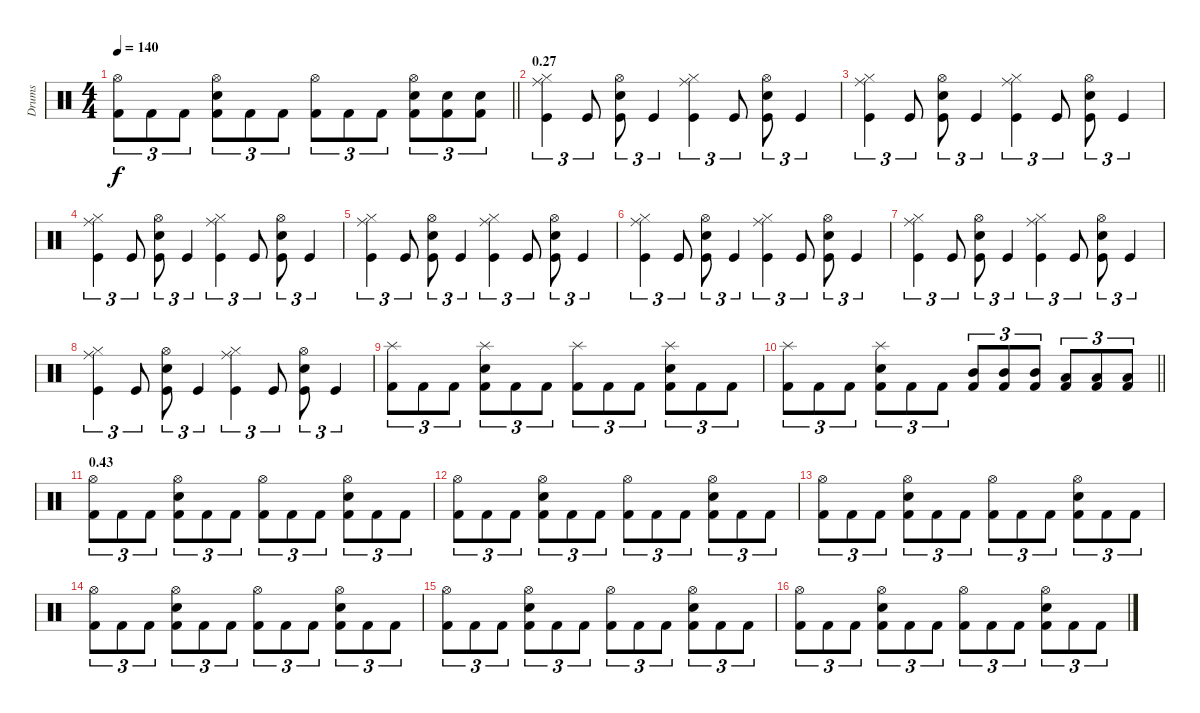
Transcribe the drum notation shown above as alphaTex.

\track ("Drums" "Drums") {instrument percussion}
\staff {score}
\articulation defaults
\ts (4 4)
\tempo 140
\clef neutral
\barLineRight lightlight
\ks c
("Hi-Hat (open)" "Kick (hit) 2").8{tu (3 2) dy f} "Kick (hit) 2".8{tu (3 2)} "Kick (hit) 2".8{tu (3 2)} ("Hi-Hat (open)" "Electric Snare (hit)" "Kick (hit) 2").8{tu (3 2)} "Kick (hit) 2".8{tu (3 2)} "Kick (hit) 2".8{tu (3 2)} ("Hi-Hat (open)" "Kick (hit) 2").8{tu (3 2)} "Kick (hit) 2".8{tu (3 2)} "Kick (hit) 2".8{tu (3 2)} ("Hi-Hat (open)" "Electric Snare (hit)" "Kick (hit) 2").8{tu (3 2)} ("Electric Snare (hit)" "Kick (hit) 2").8{tu (3 2)} ("Electric Snare (hit)" "Kick (hit) 2").8{tu (3 2)} |
\section ("" "0.27")
("Hi-Hat (closed)" "Ride (middle)" "Kick (hit)").4{tu (3 2)} "Kick (hit)".8{tu (3 2)} ("Hi-Hat (open)" "Electric Snare (hit)" "Kick (hit)").8{tu (3 2)} "Kick (hit)".4{tu (3 2)} ("Hi-Hat (closed)" "Ride (middle)" "Kick (hit)").4{tu (3 2)} "Kick (hit)".8{tu (3 2)} ("Hi-Hat (open)" "Electric Snare (hit)" "Kick (hit)").8{tu (3 2)} "Kick (hit)".4{tu (3 2)} |
("Hi-Hat (closed)" "Ride (middle)" "Kick (hit)").4{tu (3 2)} "Kick (hit)".8{tu (3 2)} ("Hi-Hat (open)" "Electric Snare (hit)" "Kick (hit)").8{tu (3 2)} "Kick (hit)".4{tu (3 2)} ("Hi-Hat (closed)" "Ride (middle)" "Kick (hit)").4{tu (3 2)} "Kick (hit)".8{tu (3 2)} ("Hi-Hat (open)" "Electric Snare (hit)" "Kick (hit)").8{tu (3 2)} "Kick (hit)".4{tu (3 2)} |
("Hi-Hat (closed)" "Ride (middle)" "Kick (hit)").4{tu (3 2)} "Kick (hit)".8{tu (3 2)} ("Hi-Hat (open)" "Electric Snare (hit)" "Kick (hit)").8{tu (3 2)} "Kick (hit)".4{tu (3 2)} ("Hi-Hat (closed)" "Ride (middle)" "Kick (hit)").4{tu (3 2)} "Kick (hit)".8{tu (3 2)} ("Hi-Hat (open)" "Electric Snare (hit)" "Kick (hit)").8{tu (3 2)} "Kick (hit)".4{tu (3 2)} |
("Hi-Hat (closed)" "Ride (middle)" "Kick (hit)").4{tu (3 2)} "Kick (hit)".8{tu (3 2)} ("Hi-Hat (open)" "Electric Snare (hit)" "Kick (hit)").8{tu (3 2)} "Kick (hit)".4{tu (3 2)} ("Hi-Hat (closed)" "Ride (middle)" "Kick (hit)").4{tu (3 2)} "Kick (hit)".8{tu (3 2)} ("Hi-Hat (open)" "Electric Snare (hit)" "Kick (hit)").8{tu (3 2)} "Kick (hit)".4{tu (3 2)} |
("Hi-Hat (closed)" "Ride (middle)" "Kick (hit)").4{tu (3 2)} "Kick (hit)".8{tu (3 2)} ("Hi-Hat (open)" "Electric Snare (hit)" "Kick (hit)").8{tu (3 2)} "Kick (hit)".4{tu (3 2)} ("Hi-Hat (closed)" "Ride (middle)" "Kick (hit)").4{tu (3 2)} "Kick (hit)".8{tu (3 2)} ("Hi-Hat (open)" "Electric Snare (hit)" "Kick (hit)").8{tu (3 2)} "Kick (hit)".4{tu (3 2)} |
("Hi-Hat (closed)" "Ride (middle)" "Kick (hit)").4{tu (3 2)} "Kick (hit)".8{tu (3 2)} ("Hi-Hat (open)" "Electric Snare (hit)" "Kick (hit)").8{tu (3 2)} "Kick (hit)".4{tu (3 2)} ("Hi-Hat (closed)" "Ride (middle)" "Kick (hit)").4{tu (3 2)} "Kick (hit)".8{tu (3 2)} ("Hi-Hat (open)" "Electric Snare (hit)" "Kick (hit)").8{tu (3 2)} "Kick (hit)".4{tu (3 2)} |
("Hi-Hat (closed)" "Ride (middle)" "Kick (hit)").4{tu (3 2)} "Kick (hit)".8{tu (3 2)} ("Hi-Hat (open)" "Electric Snare (hit)" "Kick (hit)").8{tu (3 2)} "Kick (hit)".4{tu (3 2)} ("Hi-Hat (closed)" "Ride (middle)" "Kick (hit)").4{tu (3 2)} "Kick (hit)".8{tu (3 2)} ("Hi-Hat (open)" "Electric Snare (hit)" "Kick (hit)").8{tu (3 2)} "Kick (hit)".4{tu (3 2)} |
("Splash (hit)" "Kick (hit) 2").8{tu (3 2)} "Kick (hit) 2".8{tu (3 2)} "Kick (hit) 2".8{tu (3 2)} ("Splash (hit)" "Electric Snare (hit)" "Kick (hit) 2").8{tu (3 2)} "Kick (hit) 2".8{tu (3 2)} "Kick (hit) 2".8{tu (3 2)} ("Splash (hit)" "Kick (hit) 2").8{tu (3 2)} "Kick (hit) 2".8{tu (3 2)} "Kick (hit) 2".8{tu (3 2)} ("Splash (hit)" "Electric Snare (hit)" "Kick (hit) 2").8{tu (3 2)} "Kick (hit) 2".8{tu (3 2)} "Kick (hit) 2".8{tu (3 2)} |
\barLineRight lightlight
("Splash (hit)" "Kick (hit) 2").8{tu (3 2)} "Kick (hit) 2".8{tu (3 2)} "Kick (hit) 2".8{tu (3 2)} ("Splash (hit)" "Electric Snare (hit)" "Kick (hit) 2").8{tu (3 2)} "Kick (hit) 2".8{tu (3 2)} "Kick (hit) 2".8{tu (3 2)} ("Mid Tom (hit)" "Kick (hit) 2").8{tu (3 2)} ("Mid Tom (hit)" "Kick (hit) 2").8{tu (3 2)} ("Mid Tom (hit)" "Kick (hit) 2").8{tu (3 2)} ("Low Tom (hit)" "Kick (hit) 2").8{tu (3 2)} ("Low Tom (hit)" "Kick (hit) 2").8{tu (3 2)} ("Low Tom (hit)" "Kick (hit) 2").8{tu (3 2)} |
\section ("" "0.43")
("Hi-Hat (open)" "Kick (hit) 2").8{tu (3 2)} "Kick (hit) 2".8{tu (3 2)} "Kick (hit) 2".8{tu (3 2)} ("Hi-Hat (open)" "Electric Snare (hit)" "Kick (hit) 2").8{tu (3 2)} "Kick (hit) 2".8{tu (3 2)} "Kick (hit) 2".8{tu (3 2)} ("Hi-Hat (open)" "Kick (hit) 2").8{tu (3 2)} "Kick (hit) 2".8{tu (3 2)} "Kick (hit) 2".8{tu (3 2)} ("Hi-Hat (open)" "Electric Snare (hit)" "Kick (hit) 2").8{tu (3 2)} "Kick (hit) 2".8{tu (3 2)} "Kick (hit) 2".8{tu (3 2)} |
("Hi-Hat (open)" "Kick (hit) 2").8{tu (3 2)} "Kick (hit) 2".8{tu (3 2)} "Kick (hit) 2".8{tu (3 2)} ("Hi-Hat (open)" "Electric Snare (hit)" "Kick (hit) 2").8{tu (3 2)} "Kick (hit) 2".8{tu (3 2)} "Kick (hit) 2".8{tu (3 2)} ("Hi-Hat (open)" "Kick (hit) 2").8{tu (3 2)} "Kick (hit) 2".8{tu (3 2)} "Kick (hit) 2".8{tu (3 2)} ("Hi-Hat (open)" "Electric Snare (hit)" "Kick (hit) 2").8{tu (3 2)} "Kick (hit) 2".8{tu (3 2)} "Kick (hit) 2".8{tu (3 2)} |
("Hi-Hat (open)" "Kick (hit) 2").8{tu (3 2)} "Kick (hit) 2".8{tu (3 2)} "Kick (hit) 2".8{tu (3 2)} ("Hi-Hat (open)" "Electric Snare (hit)" "Kick (hit) 2").8{tu (3 2)} "Kick (hit) 2".8{tu (3 2)} "Kick (hit) 2".8{tu (3 2)} ("Hi-Hat (open)" "Kick (hit) 2").8{tu (3 2)} "Kick (hit) 2".8{tu (3 2)} "Kick (hit) 2".8{tu (3 2)} ("Hi-Hat (open)" "Electric Snare (hit)" "Kick (hit) 2").8{tu (3 2)} "Kick (hit) 2".8{tu (3 2)} "Kick (hit) 2".8{tu (3 2)} |
("Hi-Hat (open)" "Kick (hit) 2").8{tu (3 2)} "Kick (hit) 2".8{tu (3 2)} "Kick (hit) 2".8{tu (3 2)} ("Hi-Hat (open)" "Electric Snare (hit)" "Kick (hit) 2").8{tu (3 2)} "Kick (hit) 2".8{tu (3 2)} "Kick (hit) 2".8{tu (3 2)} ("Hi-Hat (open)" "Kick (hit) 2").8{tu (3 2)} "Kick (hit) 2".8{tu (3 2)} "Kick (hit) 2".8{tu (3 2)} ("Hi-Hat (open)" "Electric Snare (hit)" "Kick (hit) 2").8{tu (3 2)} "Kick (hit) 2".8{tu (3 2)} "Kick (hit) 2".8{tu (3 2)} |
("Hi-Hat (open)" "Kick (hit) 2").8{tu (3 2)} "Kick (hit) 2".8{tu (3 2)} "Kick (hit) 2".8{tu (3 2)} ("Hi-Hat (open)" "Electric Snare (hit)" "Kick (hit) 2").8{tu (3 2)} "Kick (hit) 2".8{tu (3 2)} "Kick (hit) 2".8{tu (3 2)} ("Hi-Hat (open)" "Kick (hit) 2").8{tu (3 2)} "Kick (hit) 2".8{tu (3 2)} "Kick (hit) 2".8{tu (3 2)} ("Hi-Hat (open)" "Electric Snare (hit)" "Kick (hit) 2").8{tu (3 2)} "Kick (hit) 2".8{tu (3 2)} "Kick (hit) 2".8{tu (3 2)} |
("Hi-Hat (open)" "Kick (hit) 2").8{tu (3 2)} "Kick (hit) 2".8{tu (3 2)} "Kick (hit) 2".8{tu (3 2)} ("Hi-Hat (open)" "Electric Snare (hit)" "Kick (hit) 2").8{tu (3 2)} "Kick (hit) 2".8{tu (3 2)} "Kick (hit) 2".8{tu (3 2)} ("Hi-Hat (open)" "Kick (hit) 2").8{tu (3 2)} "Kick (hit) 2".8{tu (3 2)} "Kick (hit) 2".8{tu (3 2)} ("Hi-Hat (open)" "Electric Snare (hit)" "Kick (hit) 2").8{tu (3 2)} "Kick (hit) 2".8{tu (3 2)} "Kick (hit) 2".8{tu (3 2)}
